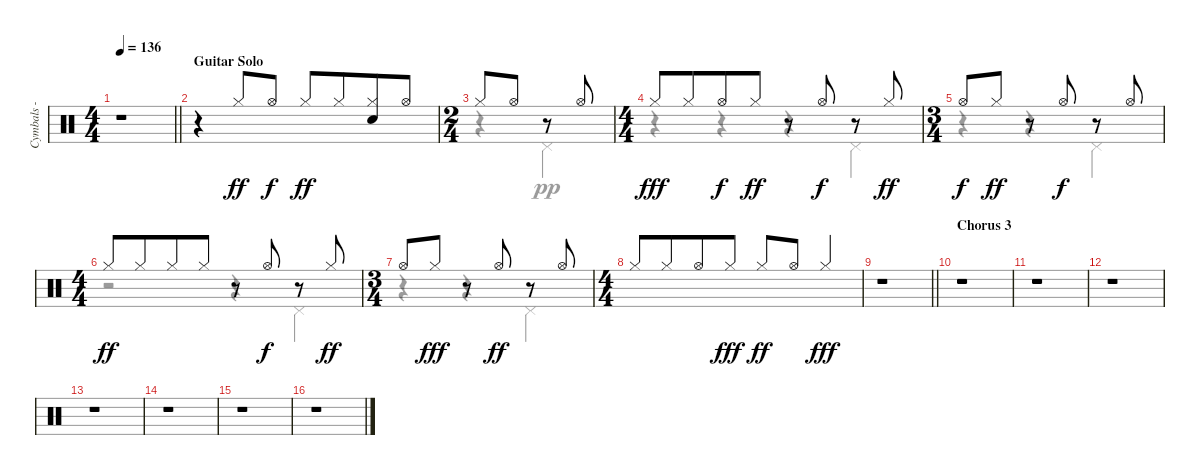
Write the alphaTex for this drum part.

\track ("Cymbals - hi-hat" "Cymbals - ") {instrument percussion}
\staff {score}
\articulation defaults
\voice
\ts (4 4)
\tempo 136
\clef neutral
\barLineRight lightlight
\ks c
r.1{dy ff} |
\section ("" "Guitar Solo")
r.4 "Hi-Hat (closed)".8{beam Up} "Hi-Hat (open)".8{dy f beam Up} "Hi-Hat (closed)".8{dy ff beam Up} "Hi-Hat (closed)".8{beam Up beam merge} ("Hi-Hat (closed)" "Electric Snare (hit)").8{beam Up} "Hi-Hat (open)".8{beam Up} |
\ts (2 4)
"Hi-Hat (closed)".8 "Hi-Hat (open)".8 r.8 "Hi-Hat (open)".8 |
\ts (4 4)
"Hi-Hat (closed)".8{dy fff} "Hi-Hat (closed)".8{beam merge} "Hi-Hat (open)".8{dy f} "Hi-Hat (closed)".8{dy ff} r.8 "Hi-Hat (open)".8{dy f} r.8 "Hi-Hat (closed)".8{dy ff} |
\ts (3 4)
"Hi-Hat (open)".8{dy f} "Hi-Hat (closed)".8{dy ff} r.8 "Hi-Hat (open)".8{dy f} r.8 "Hi-Hat (open)".8 |
\ts (4 4)
"Hi-Hat (closed)".8{dy ff} "Hi-Hat (closed)".8{beam merge} "Hi-Hat (closed)".8 "Hi-Hat (closed)".8 r.8 "Hi-Hat (open)".8{dy f} r.8 "Hi-Hat (closed)".8{dy ff} |
\ts (3 4)
"Hi-Hat (open)".8 "Hi-Hat (closed)".8{dy fff} r.8 "Hi-Hat (open)".8{dy ff} r.8 "Hi-Hat (open)".8 |
\ts (4 4)
"Hi-Hat (closed)".8{beam Up} "Hi-Hat (closed)".8{beam Up beam merge} "Hi-Hat (open)".8{beam Up} "Hi-Hat (closed)".8{dy fff beam Up} "Hi-Hat (closed)".8{dy ff beam Up} "Hi-Hat (open)".8{beam Up} "Hi-Hat (closed)".4{dy fff beam Up} |
\barLineRight lightlight
r.1 |
\section ("" "Chorus 3")
r.1 |
r.1 |
r.1 |
r.1 |
r.1 |
r.1 |
r.1
\voice
\clef neutral
\ottava regular
\simile none
\barLineRight lightlight
\ks c
|
|
r.4 "Pedal Hi-Hat (hit)".4{dy pp} |
r.4 r.4 r.4 "Pedal Hi-Hat (hit)".4 |
r.4 r.4 "Pedal Hi-Hat (hit)".4 |
r.2 r.4 "Pedal Hi-Hat (hit)".4 |
r.4 r.4 "Pedal Hi-Hat (hit)".4 |
|
\barLineRight lightlight
|
|
|
|
|
|
|
